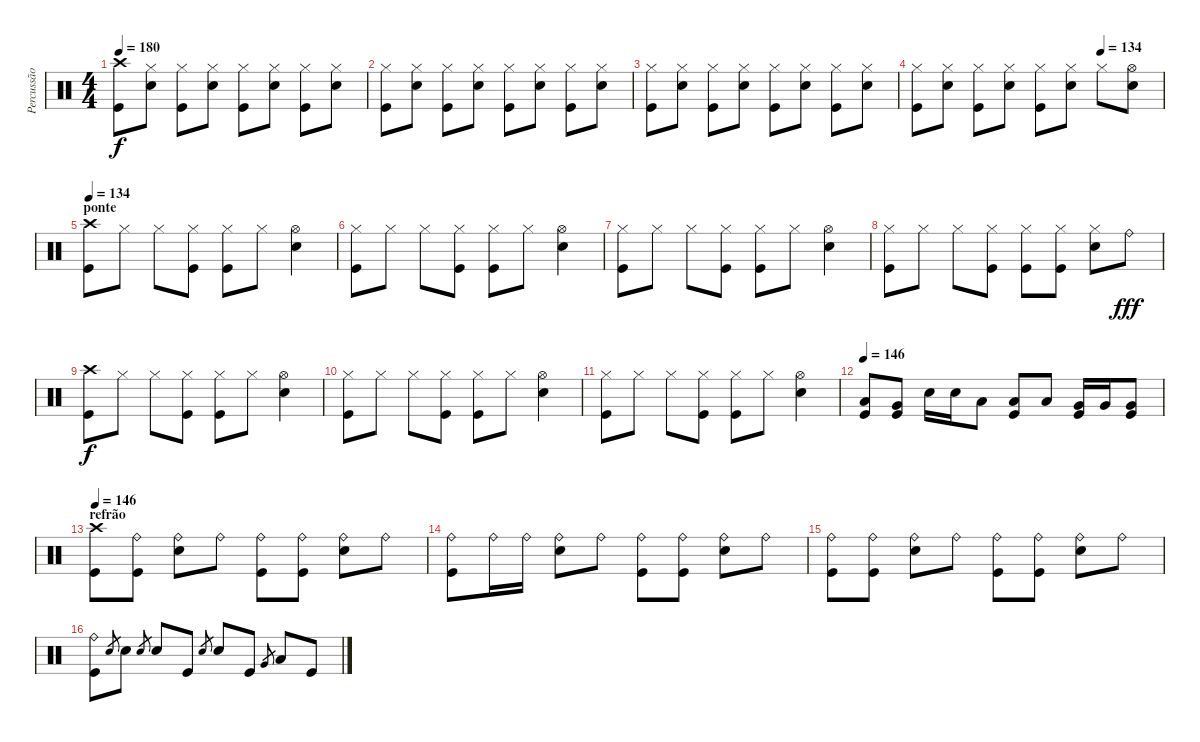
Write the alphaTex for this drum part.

\track ("Percussão" "Percussão") {instrument percussion}
\staff {score}
\articulation defaults
\ts (4 4)
\tempo 180
\clef neutral
\ks c
("Crash high (hit)" "Kick (hit)").8{dy f} ("Hi-Hat (closed)" "Snare (hit) 2").8 ("Hi-Hat (closed)" "Kick (hit)").8 ("Hi-Hat (closed)" "Snare (hit) 2").8 ("Hi-Hat (closed)" "Kick (hit)").8 ("Hi-Hat (closed)" "Snare (hit) 2").8 ("Hi-Hat (closed)" "Kick (hit)").8 ("Hi-Hat (closed)" "Snare (hit) 2").8 |
("Hi-Hat (closed)" "Kick (hit)").8 ("Hi-Hat (closed)" "Snare (hit) 2").8 ("Hi-Hat (closed)" "Kick (hit)").8 ("Hi-Hat (closed)" "Snare (hit) 2").8 ("Hi-Hat (closed)" "Kick (hit)").8 ("Hi-Hat (closed)" "Snare (hit) 2").8 ("Hi-Hat (closed)" "Kick (hit)").8 ("Hi-Hat (closed)" "Snare (hit) 2").8 |
("Hi-Hat (closed)" "Kick (hit)").8 ("Hi-Hat (closed)" "Snare (hit) 2").8 ("Hi-Hat (closed)" "Kick (hit)").8 ("Hi-Hat (closed)" "Snare (hit) 2").8 ("Hi-Hat (closed)" "Kick (hit)").8 ("Hi-Hat (closed)" "Snare (hit) 2").8 ("Hi-Hat (closed)" "Kick (hit)").8 ("Hi-Hat (closed)" "Snare (hit) 2").8 |
\tempo (134 0.75)
("Hi-Hat (closed)" "Kick (hit)").8 ("Hi-Hat (closed)" "Snare (hit) 2").8 ("Hi-Hat (closed)" "Kick (hit)").8 ("Hi-Hat (closed)" "Snare (hit) 2").8 ("Hi-Hat (closed)" "Kick (hit)").8 ("Hi-Hat (closed)" "Snare (hit) 2").8 "Hi-Hat (closed)".8 ("Hi-Hat (open)" "Snare (hit) 2").8 |
\section ("" "ponte")
\tempo 134
("Crash high (hit)" "Kick (hit)").8 "Hi-Hat (closed)".8 "Hi-Hat (closed)".8 ("Hi-Hat (closed)" "Kick (hit)").8 ("Hi-Hat (closed)" "Kick (hit)").8 "Hi-Hat (closed)".8 ("Hi-Hat (open)" "Snare (hit) 2").4 |
("Hi-Hat (closed)" "Kick (hit)").8 "Hi-Hat (closed)".8 "Hi-Hat (closed)".8 ("Hi-Hat (closed)" "Kick (hit)").8 ("Hi-Hat (closed)" "Kick (hit)").8 "Hi-Hat (closed)".8 ("Hi-Hat (open)" "Snare (hit) 2").4 |
("Hi-Hat (closed)" "Kick (hit)").8 "Hi-Hat (closed)".8 "Hi-Hat (closed)".8 ("Hi-Hat (closed)" "Kick (hit)").8 ("Hi-Hat (closed)" "Kick (hit)").8 "Hi-Hat (closed)".8 ("Hi-Hat (open)" "Snare (hit) 2").4 |
("Hi-Hat (closed)" "Kick (hit)").8 "Hi-Hat (closed)".8 "Hi-Hat (closed)".8 ("Hi-Hat (closed)" "Kick (hit)").8 ("Hi-Hat (closed)" "Kick (hit)").8 ("Hi-Hat (closed)" "Kick (hit)").8 ("Hi-Hat (closed)" "Snare (hit) 2").8 "Ride (bell)".8{dy fff} |
("Crash high (hit)" "Kick (hit)").8{dy f} "Hi-Hat (closed)".8 "Hi-Hat (closed)".8 ("Hi-Hat (closed)" "Kick (hit)").8 ("Hi-Hat (closed)" "Kick (hit)").8 "Hi-Hat (closed)".8 ("Hi-Hat (open)" "Snare (hit) 2").4 |
("Hi-Hat (closed)" "Kick (hit)").8 "Hi-Hat (closed)".8 "Hi-Hat (closed)".8 ("Hi-Hat (closed)" "Kick (hit)").8 ("Hi-Hat (closed)" "Kick (hit)").8 "Hi-Hat (closed)".8 ("Hi-Hat (open)" "Snare (hit) 2").4 |
("Hi-Hat (closed)" "Kick (hit)").8 "Hi-Hat (closed)".8 "Hi-Hat (closed)".8 ("Hi-Hat (closed)" "Kick (hit)").8 ("Hi-Hat (closed)" "Kick (hit)").8 "Hi-Hat (closed)".8 ("Hi-Hat (open)" "Snare (hit) 2").4 |
\tempo 146
("Low Tom (hit)" "Kick (hit)").8 ("Very Low Tom (hit)" "Kick (hit)").8 "Snare (hit) 2".16 "Snare (hit) 2".16 "Low Tom (hit)".8 ("Low Tom (hit)" "Kick (hit)").8 "Low Tom (hit)".8 ("Very Low Tom (hit)" "Kick (hit)").16 "Very Low Tom (hit)".16 ("Very Low Tom (hit)" "Kick (hit)").8 |
\section ("" "refrão")
\tempo 146
("Crash high (hit)" "Kick (hit)").8 ("Ride (bell)" "Kick (hit)").8 ("Ride (bell)" "Snare (hit) 2").8 "Ride (bell)".8 ("Ride (bell)" "Kick (hit)").8 ("Ride (bell)" "Kick (hit)").8 ("Ride (bell)" "Snare (hit) 2").8 "Ride (bell)".8 |
("Ride (bell)" "Kick (hit)").8 "Ride (bell)".16 "Ride (bell)".16 ("Ride (bell)" "Snare (hit) 2").8 "Ride (bell)".8 ("Ride (bell)" "Kick (hit)").8 ("Ride (bell)" "Kick (hit)").8 ("Ride (bell)" "Snare (hit) 2").8 "Ride (bell)".8 |
("Ride (bell)" "Kick (hit)").8 ("Ride (bell)" "Kick (hit)").8 ("Ride (bell)" "Snare (hit) 2").8 "Ride (bell)".8 ("Ride (bell)" "Kick (hit)").8 ("Ride (bell)" "Kick (hit)").8 ("Ride (bell)" "Snare (hit) 2").8 "Ride (bell)".8 |
("Ride (bell)" "Kick (hit)").8 "Snare (hit) 2".8{gr} "Snare (hit) 2".8 "Snare (hit) 2".8{gr} "Snare (hit) 2".8 "Kick (hit)".8 "Snare (hit) 2".8{gr} "Snare (hit) 2".8 "Kick (hit)".8 "Very Low Tom (hit)".8{gr} "Low Tom (hit)".8 "Kick (hit)".8
